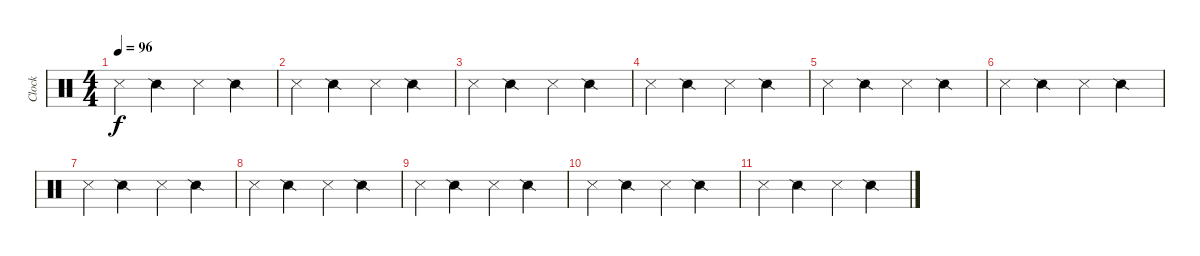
\track ("Clock" "Clock") {instrument percussion}
\staff {score}
\articulation defaults
\ts (4 4)
\tempo 96
\clef neutral
\ks c "Snare (side stick) 3".4{dy f} "Snare (side stick) 2".4 "Snare (side stick) 3".4 "Snare (side stick) 2".4
|
"Snare (side stick) 3".4 "Snare (side stick) 2".4 "Snare (side stick) 3".4 "Snare (side stick) 2".4 |
"Snare (side stick) 3".4 "Snare (side stick) 2".4 "Snare (side stick) 3".4 "Snare (side stick) 2".4 |
"Snare (side stick) 3".4 "Snare (side stick) 2".4 "Snare (side stick) 3".4 "Snare (side stick) 2".4 |
"Snare (side stick) 3".4 "Snare (side stick) 2".4 "Snare (side stick) 3".4 "Snare (side stick) 2".4 |
"Snare (side stick) 3".4 "Snare (side stick) 2".4 "Snare (side stick) 3".4 "Snare (side stick) 2".4 |
"Snare (side stick) 3".4 "Snare (side stick) 2".4 "Snare (side stick) 3".4 "Snare (side stick) 2".4 |
"Snare (side stick) 3".4 "Snare (side stick) 2".4 "Snare (side stick) 3".4 "Snare (side stick) 2".4 |
"Snare (side stick) 3".4 "Snare (side stick) 2".4 "Snare (side stick) 3".4 "Snare (side stick) 2".4 |
"Snare (side stick) 3".4 "Snare (side stick) 2".4 "Snare (side stick) 3".4 "Snare (side stick) 2".4 |
"Snare (side stick) 3".4 "Snare (side stick) 2".4 "Snare (side stick) 3".4 "Snare (side stick) 2".4
